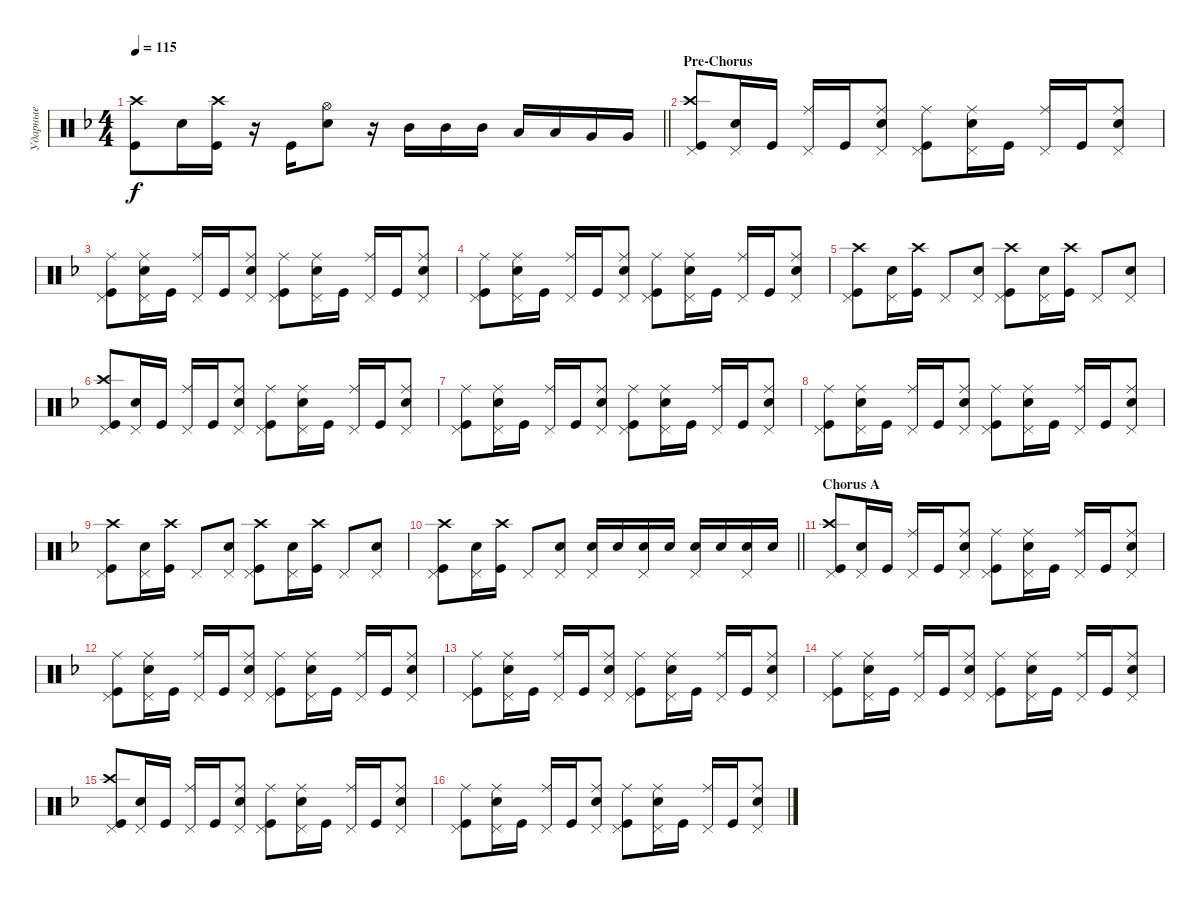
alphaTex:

\track ("Ударные" "Ударные") {instrument percussion}
\staff {score}
\articulation defaults
\ts (4 4)
\tempo 115
\clef neutral
\barLineRight lightlight
\ks dminor
("Kick (hit)" "Crash high (hit)").8{dy f} "Snare (hit) 2".16 ("Kick (hit)" "Crash high (hit)").16 r.16 "Kick (hit)".16 ("Snare (hit) 2" "Hi-Hat (open)").8 r.16 "Mid Tom (hit)".16 "Mid Tom (hit)".16 "Mid Tom (hit)".16 "Low Tom (hit)".16 "Low Tom (hit)".16 "Very Low Tom (hit)".16 "Very Low Tom (hit)".16 |
\section ("" "Pre-Chorus")
("Kick (hit)" "Pedal Hi-Hat (hit)" "Crash high (hit)").8 ("Snare (hit) 2" "Pedal Hi-Hat (hit)").16 "Kick (hit)".16 ("Ride (middle)" "Pedal Hi-Hat (hit)").16 "Kick (hit)".16 ("Snare (hit) 2" "Ride (middle)" "Pedal Hi-Hat (hit)").8 ("Kick (hit)" "Pedal Hi-Hat (hit)" "Ride (middle)").8 ("Snare (hit) 2" "Ride (middle)" "Pedal Hi-Hat (hit)").16 "Kick (hit)".16 ("Ride (middle)" "Pedal Hi-Hat (hit)").16 "Kick (hit)".16 ("Snare (hit) 2" "Ride (middle)" "Pedal Hi-Hat (hit)").8 |
("Kick (hit)" "Pedal Hi-Hat (hit)" "Ride (middle)").8 ("Snare (hit) 2" "Ride (middle)" "Pedal Hi-Hat (hit)").16 "Kick (hit)".16 ("Ride (middle)" "Pedal Hi-Hat (hit)").16 "Kick (hit)".16 ("Snare (hit) 2" "Ride (middle)" "Pedal Hi-Hat (hit)").8 ("Kick (hit)" "Pedal Hi-Hat (hit)" "Ride (middle)").8 ("Snare (hit) 2" "Ride (middle)" "Pedal Hi-Hat (hit)").16 "Kick (hit)".16 ("Ride (middle)" "Pedal Hi-Hat (hit)").16 "Kick (hit)".16 ("Snare (hit) 2" "Ride (middle)" "Pedal Hi-Hat (hit)").8 |
("Kick (hit)" "Pedal Hi-Hat (hit)" "Ride (middle)").8 ("Snare (hit) 2" "Ride (middle)" "Pedal Hi-Hat (hit)").16 "Kick (hit)".16 ("Ride (middle)" "Pedal Hi-Hat (hit)").16 "Kick (hit)".16 ("Snare (hit) 2" "Ride (middle)" "Pedal Hi-Hat (hit)").8 ("Kick (hit)" "Pedal Hi-Hat (hit)" "Ride (middle)").8 ("Snare (hit) 2" "Ride (middle)" "Pedal Hi-Hat (hit)").16 "Kick (hit)".16 ("Ride (middle)" "Pedal Hi-Hat (hit)").16 "Kick (hit)".16 ("Snare (hit) 2" "Ride (middle)" "Pedal Hi-Hat (hit)").8 |
("Kick (hit)" "Pedal Hi-Hat (hit)" "Crash high (hit)").8 ("Snare (hit) 2" "Pedal Hi-Hat (hit)").16 ("Kick (hit)" "Crash high (hit)").16 "Pedal Hi-Hat (hit)".8 ("Snare (hit) 2" "Pedal Hi-Hat (hit)").8 ("Kick (hit)" "Pedal Hi-Hat (hit)" "Crash high (hit)").8 ("Snare (hit) 2" "Pedal Hi-Hat (hit)").16 ("Kick (hit)" "Crash high (hit)").16 "Pedal Hi-Hat (hit)".8 ("Snare (hit) 2" "Pedal Hi-Hat (hit)").8 |
("Kick (hit)" "Pedal Hi-Hat (hit)" "Crash high (hit)").8 ("Snare (hit) 2" "Pedal Hi-Hat (hit)").16 "Kick (hit)".16 ("Ride (middle)" "Pedal Hi-Hat (hit)").16 "Kick (hit)".16 ("Snare (hit) 2" "Ride (middle)" "Pedal Hi-Hat (hit)").8 ("Kick (hit)" "Pedal Hi-Hat (hit)" "Ride (middle)").8 ("Snare (hit) 2" "Ride (middle)" "Pedal Hi-Hat (hit)").16 "Kick (hit)".16 ("Ride (middle)" "Pedal Hi-Hat (hit)").16 "Kick (hit)".16 ("Snare (hit) 2" "Ride (middle)" "Pedal Hi-Hat (hit)").8 |
("Kick (hit)" "Pedal Hi-Hat (hit)" "Ride (middle)").8 ("Snare (hit) 2" "Ride (middle)" "Pedal Hi-Hat (hit)").16 "Kick (hit)".16 ("Ride (middle)" "Pedal Hi-Hat (hit)").16 "Kick (hit)".16 ("Snare (hit) 2" "Ride (middle)" "Pedal Hi-Hat (hit)").8 ("Kick (hit)" "Pedal Hi-Hat (hit)" "Ride (middle)").8 ("Snare (hit) 2" "Ride (middle)" "Pedal Hi-Hat (hit)").16 "Kick (hit)".16 ("Ride (middle)" "Pedal Hi-Hat (hit)").16 "Kick (hit)".16 ("Snare (hit) 2" "Ride (middle)" "Pedal Hi-Hat (hit)").8 |
("Kick (hit)" "Pedal Hi-Hat (hit)" "Ride (middle)").8 ("Snare (hit) 2" "Ride (middle)" "Pedal Hi-Hat (hit)").16 "Kick (hit)".16 ("Ride (middle)" "Pedal Hi-Hat (hit)").16 "Kick (hit)".16 ("Snare (hit) 2" "Ride (middle)" "Pedal Hi-Hat (hit)").8 ("Kick (hit)" "Pedal Hi-Hat (hit)" "Ride (middle)").8 ("Snare (hit) 2" "Ride (middle)" "Pedal Hi-Hat (hit)").16 "Kick (hit)".16 ("Ride (middle)" "Pedal Hi-Hat (hit)").16 "Kick (hit)".16 ("Snare (hit) 2" "Ride (middle)" "Pedal Hi-Hat (hit)").8 |
("Kick (hit)" "Pedal Hi-Hat (hit)" "Crash high (hit)").8 ("Snare (hit) 2" "Pedal Hi-Hat (hit)").16 ("Kick (hit)" "Crash high (hit)").16 "Pedal Hi-Hat (hit)".8 ("Snare (hit) 2" "Pedal Hi-Hat (hit)").8 ("Kick (hit)" "Pedal Hi-Hat (hit)" "Crash high (hit)").8 ("Snare (hit) 2" "Pedal Hi-Hat (hit)").16 ("Kick (hit)" "Crash high (hit)").16 "Pedal Hi-Hat (hit)".8 ("Snare (hit) 2" "Pedal Hi-Hat (hit)").8 |
\barLineRight lightlight
("Kick (hit)" "Pedal Hi-Hat (hit)" "Crash high (hit)").8 ("Snare (hit) 2" "Pedal Hi-Hat (hit)").16 ("Kick (hit)" "Crash high (hit)").16 "Pedal Hi-Hat (hit)".8 ("Snare (hit) 2" "Pedal Hi-Hat (hit)").8 ("Snare (hit) 2" "Pedal Hi-Hat (hit)").16 "Snare (hit) 2".16 ("Snare (hit) 2" "Pedal Hi-Hat (hit)").16 "Snare (hit) 2".16 ("Snare (hit) 2" "Pedal Hi-Hat (hit)").16 "Snare (hit) 2".16 ("Snare (hit) 2" "Pedal Hi-Hat (hit)").16 "Snare (hit) 2".16 |
\section ("" "Chorus A")
("Kick (hit)" "Pedal Hi-Hat (hit)" "Crash high (hit)").8 ("Snare (hit) 2" "Pedal Hi-Hat (hit)").16 "Kick (hit)".16 ("Ride (middle)" "Pedal Hi-Hat (hit)").16 "Kick (hit)".16 ("Snare (hit) 2" "Ride (middle)" "Pedal Hi-Hat (hit)").8 ("Kick (hit)" "Pedal Hi-Hat (hit)" "Ride (middle)").8 ("Snare (hit) 2" "Ride (middle)" "Pedal Hi-Hat (hit)").16 "Kick (hit)".16 ("Ride (middle)" "Pedal Hi-Hat (hit)").16 "Kick (hit)".16 ("Snare (hit) 2" "Ride (middle)" "Pedal Hi-Hat (hit)").8 |
("Kick (hit)" "Pedal Hi-Hat (hit)" "Ride (middle)").8 ("Snare (hit) 2" "Ride (middle)" "Pedal Hi-Hat (hit)").16 "Kick (hit)".16 ("Ride (middle)" "Pedal Hi-Hat (hit)").16 "Kick (hit)".16 ("Snare (hit) 2" "Ride (middle)" "Pedal Hi-Hat (hit)").8 ("Kick (hit)" "Pedal Hi-Hat (hit)" "Ride (middle)").8 ("Snare (hit) 2" "Ride (middle)" "Pedal Hi-Hat (hit)").16 "Kick (hit)".16 ("Ride (middle)" "Pedal Hi-Hat (hit)").16 "Kick (hit)".16 ("Snare (hit) 2" "Ride (middle)" "Pedal Hi-Hat (hit)").8 |
("Kick (hit)" "Pedal Hi-Hat (hit)" "Ride (middle)").8 ("Snare (hit) 2" "Ride (middle)" "Pedal Hi-Hat (hit)").16 "Kick (hit)".16 ("Ride (middle)" "Pedal Hi-Hat (hit)").16 "Kick (hit)".16 ("Snare (hit) 2" "Ride (middle)" "Pedal Hi-Hat (hit)").8 ("Kick (hit)" "Pedal Hi-Hat (hit)" "Ride (middle)").8 ("Snare (hit) 2" "Ride (middle)" "Pedal Hi-Hat (hit)").16 "Kick (hit)".16 ("Ride (middle)" "Pedal Hi-Hat (hit)").16 "Kick (hit)".16 ("Snare (hit) 2" "Ride (middle)" "Pedal Hi-Hat (hit)").8 |
("Kick (hit)" "Pedal Hi-Hat (hit)" "Ride (middle)").8 ("Snare (hit) 2" "Ride (middle)" "Pedal Hi-Hat (hit)").16 "Kick (hit)".16 ("Ride (middle)" "Pedal Hi-Hat (hit)").16 "Kick (hit)".16 ("Snare (hit) 2" "Ride (middle)" "Pedal Hi-Hat (hit)").8 ("Kick (hit)" "Pedal Hi-Hat (hit)" "Ride (middle)").8 ("Snare (hit) 2" "Ride (middle)" "Pedal Hi-Hat (hit)").16 "Kick (hit)".16 ("Ride (middle)" "Pedal Hi-Hat (hit)").16 "Kick (hit)".16 ("Snare (hit) 2" "Ride (middle)" "Pedal Hi-Hat (hit)").8 |
("Kick (hit)" "Pedal Hi-Hat (hit)" "Crash high (hit)").8 ("Snare (hit) 2" "Pedal Hi-Hat (hit)").16 "Kick (hit)".16 ("Ride (middle)" "Pedal Hi-Hat (hit)").16 "Kick (hit)".16 ("Snare (hit) 2" "Ride (middle)" "Pedal Hi-Hat (hit)").8 ("Kick (hit)" "Pedal Hi-Hat (hit)" "Ride (middle)").8 ("Snare (hit) 2" "Ride (middle)" "Pedal Hi-Hat (hit)").16 "Kick (hit)".16 ("Ride (middle)" "Pedal Hi-Hat (hit)").16 "Kick (hit)".16 ("Snare (hit) 2" "Ride (middle)" "Pedal Hi-Hat (hit)").8 |
("Kick (hit)" "Pedal Hi-Hat (hit)" "Ride (middle)").8 ("Snare (hit) 2" "Ride (middle)" "Pedal Hi-Hat (hit)").16 "Kick (hit)".16 ("Ride (middle)" "Pedal Hi-Hat (hit)").16 "Kick (hit)".16 ("Snare (hit) 2" "Ride (middle)" "Pedal Hi-Hat (hit)").8 ("Kick (hit)" "Pedal Hi-Hat (hit)" "Ride (middle)").8 ("Snare (hit) 2" "Ride (middle)" "Pedal Hi-Hat (hit)").16 "Kick (hit)".16 ("Ride (middle)" "Pedal Hi-Hat (hit)").16 "Kick (hit)".16 ("Snare (hit) 2" "Ride (middle)" "Pedal Hi-Hat (hit)").8
